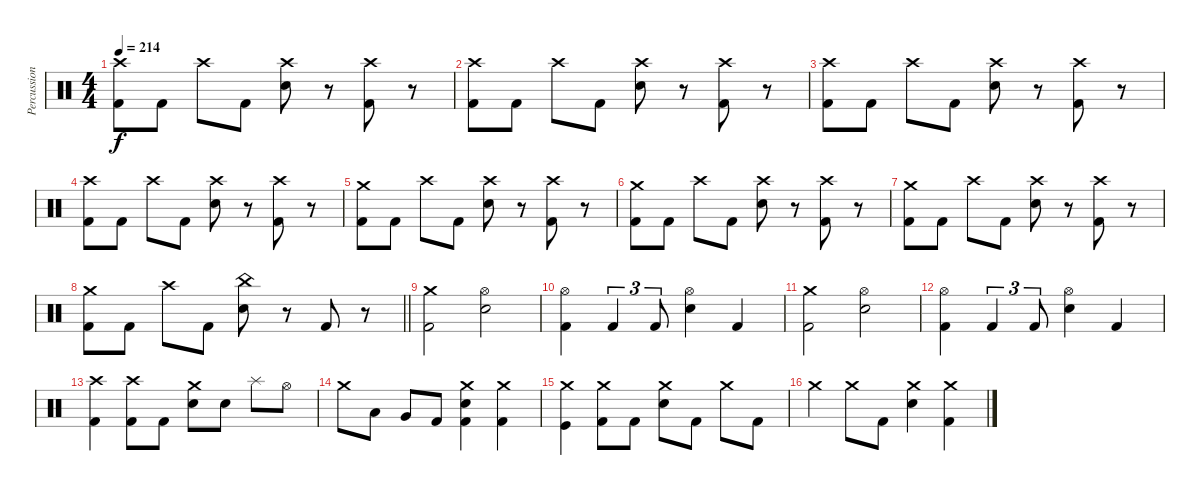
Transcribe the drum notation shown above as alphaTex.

\track ("Percussion" "Percussion") {instrument percussion}
\staff {score}
\articulation defaults
\ts (4 4)
\tempo 214
\clef neutral
\ks c
("Crash high (hit)" "Kick (hit) 2").8{dy f} "Kick (hit) 2".8 "Crash high (hit)".8 "Kick (hit) 2".8 ("Crash high (hit)" "Electric Snare (hit)").8 r.8 ("Crash high (hit)" "Kick (hit) 2").8 r.8 |
("Crash high (hit)" "Kick (hit) 2").8 "Kick (hit) 2".8 "Crash high (hit)".8 "Kick (hit) 2".8 ("Crash high (hit)" "Electric Snare (hit)").8 r.8 ("Crash high (hit)" "Kick (hit) 2").8 r.8 |
("Crash high (hit)" "Kick (hit) 2").8 "Kick (hit) 2".8 "Crash high (hit)".8 "Kick (hit) 2".8 ("Crash high (hit)" "Electric Snare (hit)").8 r.8 ("Crash high (hit)" "Kick (hit) 2").8 r.8 |
("Crash high (hit)" "Kick (hit) 2").8 "Kick (hit) 2".8 "Crash high (hit)".8 "Kick (hit) 2".8 ("Crash high (hit)" "Electric Snare (hit)").8 r.8 ("Crash high (hit)" "Kick (hit) 2").8 r.8 |
("Crash medium (hit)" "Kick (hit) 2").8 "Kick (hit) 2".8 "Crash high (hit)".8 "Kick (hit) 2".8 ("Crash high (hit)" "Electric Snare (hit)").8 r.8 ("Crash high (hit)" "Kick (hit) 2").8 r.8 |
("Crash medium (hit)" "Kick (hit) 2").8 "Kick (hit) 2".8 "Crash high (hit)".8 "Kick (hit) 2".8 ("Crash high (hit)" "Electric Snare (hit)").8 r.8 ("Crash high (hit)" "Kick (hit) 2").8 r.8 |
("Crash medium (hit)" "Kick (hit) 2").8 "Kick (hit) 2".8 "Crash high (hit)".8 "Kick (hit) 2".8 ("Crash high (hit)" "Electric Snare (hit)").8 r.8 ("Crash high (hit)" "Kick (hit) 2").8 r.8 |
\barLineRight lightlight
("Crash medium (hit)" "Kick (hit) 2").8 "Kick (hit) 2".8 "Crash high (hit)".8 "Kick (hit) 2".8 ("China (hit)" "Electric Snare (hit)").8 r.8 "Kick (hit) 2".8 r.8 |
\section ("" "")
("Crash medium (hit)" "Kick (hit) 2").2 ("Hi-Hat (open)" "Electric Snare (hit)").2 |
("Hi-Hat (open)" "Kick (hit) 2").4 "Kick (hit) 2".4{tu (3 2)} "Kick (hit) 2".8{tu (3 2)} ("Hi-Hat (open)" "Electric Snare (hit)").4 "Kick (hit) 2".4 |
("Crash medium (hit)" "Kick (hit) 2").2 ("Hi-Hat (open)" "Electric Snare (hit)").2 |
("Hi-Hat (open)" "Kick (hit) 2").4 "Kick (hit) 2".4{tu (3 2)} "Kick (hit) 2".8{tu (3 2)} ("Hi-Hat (open)" "Electric Snare (hit)").4 "Kick (hit) 2".4 |
("Crash high (hit)" "Kick (hit) 2").4 ("Crash high (hit)" "Kick (hit) 2").8 "Kick (hit) 2".8 ("Crash medium (hit)" "Electric Snare (hit)").8 "Electric Snare (hit)".8 "Splash (hit)".8 "Hi-Hat (open)".8 |
"Crash medium (hit)".8 "Low Tom (hit)".8 "Very Low Tom (hit)".8 "Kick (hit) 2".8 ("Crash medium (hit)" "Electric Snare (hit)" "Kick (hit) 2").4 ("Crash medium (hit)" "Kick (hit) 2").4 |
("Crash medium (hit)" "Kick (hit)").4 ("Crash medium (hit)" "Kick (hit) 2").8 "Kick (hit) 2".8 ("Crash medium (hit)" "Electric Snare (hit)").8 "Kick (hit) 2".8 "Crash medium (hit)".8 "Kick (hit) 2".8 |
"Crash medium (hit)".4 "Crash medium (hit)".8 "Kick (hit) 2".8 ("Crash medium (hit)" "Electric Snare (hit)").4 ("Crash medium (hit)" "Kick (hit) 2").4
